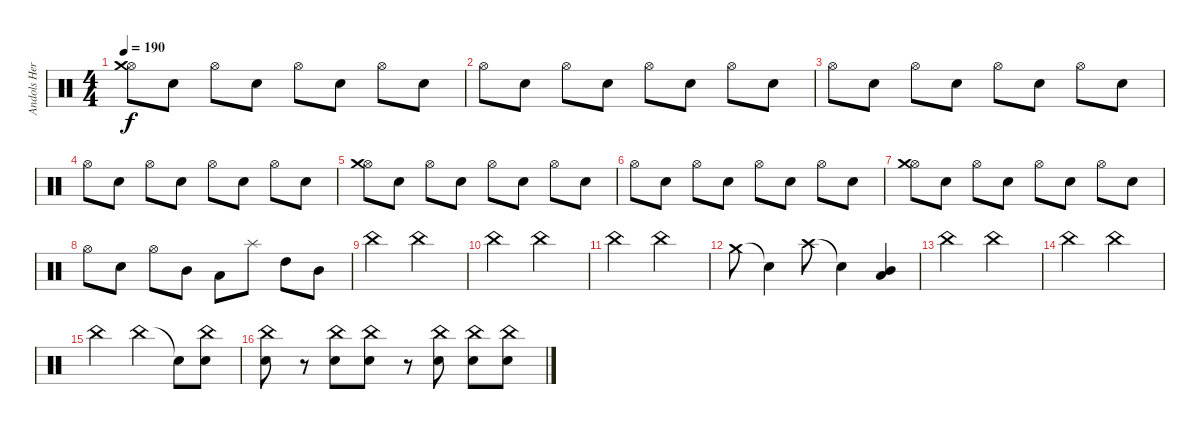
\track ("Andols Herrick" "Andols Her") {instrument percussion}
\staff {score}
\articulation defaults
\ts (4 4)
\tempo 190
\clef neutral
\ks c
("Hi-Hat (open)" "Crash medium (hit)").8{dy f} "Electric Snare (hit)".8 "Hi-Hat (open)".8 "Electric Snare (hit)".8 "Hi-Hat (open)".8 "Electric Snare (hit)".8 "Hi-Hat (open)".8 "Electric Snare (hit)".8 |
"Hi-Hat (open)".8 "Electric Snare (hit)".8 "Hi-Hat (open)".8 "Electric Snare (hit)".8 "Hi-Hat (open)".8 "Electric Snare (hit)".8 "Hi-Hat (open)".8 "Electric Snare (hit)".8 |
"Hi-Hat (open)".8 "Electric Snare (hit)".8 "Hi-Hat (open)".8 "Electric Snare (hit)".8 "Hi-Hat (open)".8 "Electric Snare (hit)".8 "Hi-Hat (open)".8 "Electric Snare (hit)".8 |
"Hi-Hat (open)".8 "Electric Snare (hit)".8 "Hi-Hat (open)".8 "Electric Snare (hit)".8 "Hi-Hat (open)".8 "Electric Snare (hit)".8 "Hi-Hat (open)".8 "Electric Snare (hit)".8 |
("Hi-Hat (open)" "Crash medium (hit)").8 "Electric Snare (hit)".8 "Hi-Hat (open)".8 "Electric Snare (hit)".8 "Hi-Hat (open)".8 "Electric Snare (hit)".8 "Hi-Hat (open)".8 "Electric Snare (hit)".8 |
"Hi-Hat (open)".8 "Electric Snare (hit)".8 "Hi-Hat (open)".8 "Electric Snare (hit)".8 "Hi-Hat (open)".8 "Electric Snare (hit)".8 "Hi-Hat (open)".8 "Electric Snare (hit)".8 |
("Hi-Hat (open)" "Crash medium (hit)").8 "Electric Snare (hit)".8 "Hi-Hat (open)".8 "Electric Snare (hit)".8 "Hi-Hat (open)".8 "Electric Snare (hit)".8 "Hi-Hat (open)".8 "Electric Snare (hit)".8 |
"Hi-Hat (open)".8 "Electric Snare (hit)".8 "Hi-Hat (open)".8 "Mid Tom (hit)".8 "Low Tom (hit)".8 "Splash (hit)".8 "High Tom (hit)".8 "Mid Tom (hit)".8 |
"China (hit)".2 "China (hit)".2 |
"China (hit)".2 "China (hit)".2 |
"China (hit)".2 "China (hit)".2 |
"Crash medium (hit)".8 "Snare (hit)"{t}.4 "Crash high (hit)".8 "Snare (hit)"{t}.4 ("Mid Tom (hit)" "Low Tom (hit)").4 |
"China (hit)".2 "China (hit)".2 |
"China (hit)".2 "China (hit)".2 |
"China (hit)".2 "China (hit)".4 "Snare (hit)"{t}.8 ("China (hit)" "Electric Snare (hit)").8 |
("China (hit)" "Electric Snare (hit)").8 r.8 ("China (hit)" "Electric Snare (hit)").8 ("China (hit)" "Electric Snare (hit)").8 r.8 ("China (hit)" "Electric Snare (hit)").8 ("China (hit)" "Electric Snare (hit)").8 ("China (hit)" "Electric Snare (hit)").8
